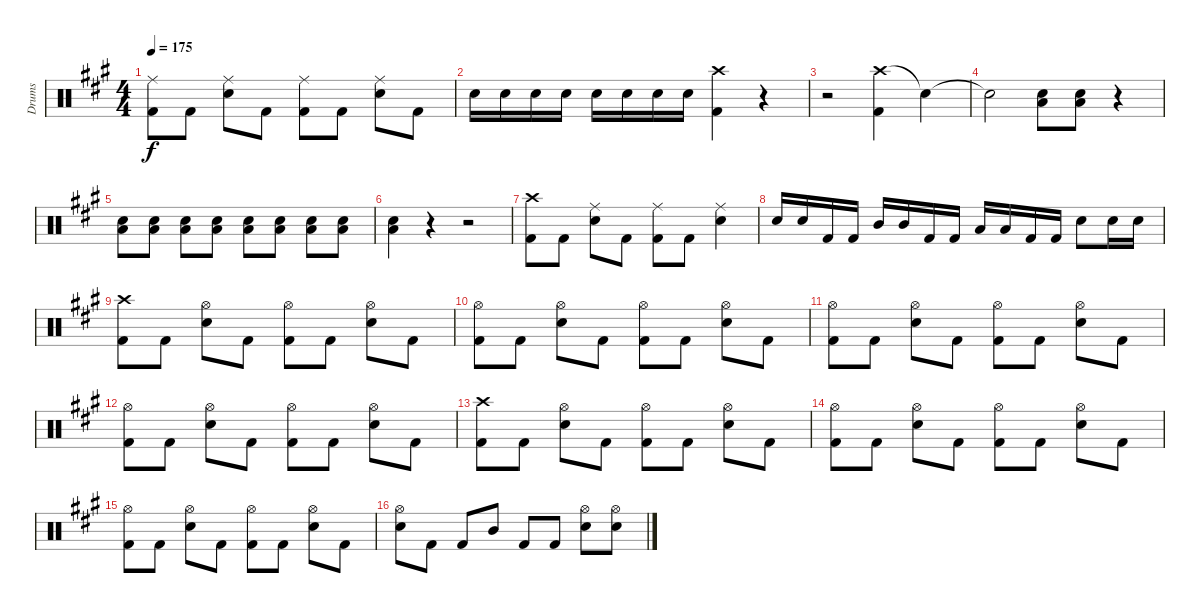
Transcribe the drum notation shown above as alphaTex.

\track ("Drums" "Drums") {instrument percussion}
\staff {score}
\articulation defaults
\ts (4 4)
\tempo 175
\clef neutral
\ks a
("Ride (middle)" "Kick (hit) 2").8{dy f} "Kick (hit) 2".8 ("Ride (middle)" "Snare (hit) 2").8 "Kick (hit) 2".8 ("Ride (middle)" "Kick (hit) 2").8 "Kick (hit) 2".8 ("Ride (middle)" "Snare (hit) 2").8 "Kick (hit) 2".8 |
"Snare (hit) 2".16 "Snare (hit) 2".16 "Snare (hit) 2".16 "Snare (hit) 2".16 "Snare (hit) 2".16 "Snare (hit) 2".16 "Snare (hit) 2".16 "Snare (hit) 2".16 ("Crash high (hit)" "Kick (hit) 2").4 r.4 |
r.2 ("Crash high (hit)" "Kick (hit) 2").4 "Snare (hit)"{t}.4 |
"Snare (hit)"{t}.2 ("Snare (hit) 2" "Low Floor Tom (hit)").8 ("Snare (hit) 2" "Low Floor Tom (hit)").8 r.4 |
("Snare (hit) 2" "Low Floor Tom (hit)").8 ("Snare (hit) 2" "Low Floor Tom (hit)").8 ("Snare (hit) 2" "Low Floor Tom (hit)").8 ("Snare (hit) 2" "Low Floor Tom (hit)").8 ("Snare (hit) 2" "Low Floor Tom (hit)").8 ("Snare (hit) 2" "Low Floor Tom (hit)").8 ("Snare (hit) 2" "Low Floor Tom (hit)").8 ("Snare (hit) 2" "Low Floor Tom (hit)").8 |
("Snare (hit) 2" "Low Floor Tom (hit)").4 r.4 r.2 |
("Crash high (hit)" "Kick (hit) 2").8 "Kick (hit) 2".8 ("Ride (middle)" "Snare (hit) 2").8 "Kick (hit) 2".8 ("Ride (middle)" "Kick (hit) 2").8 "Kick (hit) 2".8 ("Ride (middle)" "Snare (hit) 2").4 |
"Snare (hit) 2".16 "Snare (hit) 2".16 "Kick (hit) 2".16 "Kick (hit) 2".16 "Mid Tom (hit)".16 "Mid Tom (hit)".16 "Kick (hit) 2".16 "Kick (hit) 2".16 "Low Tom (hit)".16 "Low Tom (hit)".16 "Kick (hit) 2".16 "Kick (hit) 2".16 "Snare (hit) 2".8 "Snare (hit) 2".16 "Snare (hit) 2".16 |
("Crash high (hit)" "Kick (hit) 2").8 "Kick (hit) 2".8 ("Hi-Hat (open)" "Snare (hit) 2").8 "Kick (hit) 2".8 ("Hi-Hat (open)" "Kick (hit) 2").8 "Kick (hit) 2".8 ("Hi-Hat (open)" "Snare (hit) 2").8 "Kick (hit) 2".8 |
("Hi-Hat (open)" "Kick (hit) 2").8 "Kick (hit) 2".8 ("Hi-Hat (open)" "Snare (hit) 2").8 "Kick (hit) 2".8 ("Hi-Hat (open)" "Kick (hit) 2").8 "Kick (hit) 2".8 ("Hi-Hat (open)" "Snare (hit) 2").8 "Kick (hit) 2".8 |
("Hi-Hat (open)" "Kick (hit) 2").8 "Kick (hit) 2".8 ("Hi-Hat (open)" "Snare (hit) 2").8 "Kick (hit) 2".8 ("Hi-Hat (open)" "Kick (hit) 2").8 "Kick (hit) 2".8 ("Hi-Hat (open)" "Snare (hit) 2").8 "Kick (hit) 2".8 |
("Hi-Hat (open)" "Kick (hit) 2").8 "Kick (hit) 2".8 ("Hi-Hat (open)" "Snare (hit) 2").8 "Kick (hit) 2".8 ("Hi-Hat (open)" "Kick (hit) 2").8 "Kick (hit) 2".8 ("Hi-Hat (open)" "Snare (hit) 2").8 "Kick (hit) 2".8 |
("Crash high (hit)" "Kick (hit) 2").8 "Kick (hit) 2".8 ("Hi-Hat (open)" "Snare (hit) 2").8 "Kick (hit) 2".8 ("Hi-Hat (open)" "Kick (hit) 2").8 "Kick (hit) 2".8 ("Hi-Hat (open)" "Snare (hit) 2").8 "Kick (hit) 2".8 |
("Hi-Hat (open)" "Kick (hit) 2").8 "Kick (hit) 2".8 ("Hi-Hat (open)" "Snare (hit) 2").8 "Kick (hit) 2".8 ("Hi-Hat (open)" "Kick (hit) 2").8 "Kick (hit) 2".8 ("Hi-Hat (open)" "Snare (hit) 2").8 "Kick (hit) 2".8 |
("Hi-Hat (open)" "Kick (hit) 2").8 "Kick (hit) 2".8 ("Hi-Hat (open)" "Snare (hit) 2").8 "Kick (hit) 2".8 ("Hi-Hat (open)" "Kick (hit) 2").8 "Kick (hit) 2".8 ("Hi-Hat (open)" "Snare (hit) 2").8 "Kick (hit) 2".8 |
("Hi-Hat (open)" "Snare (hit) 2").8 "Kick (hit) 2".8 "Kick (hit) 2".8 "Mid Tom (hit)".8 "Kick (hit) 2".8 "Kick (hit) 2".8 ("Hi-Hat (open)" "Snare (hit) 2").8 ("Hi-Hat (open)" "Snare (hit) 2").8
